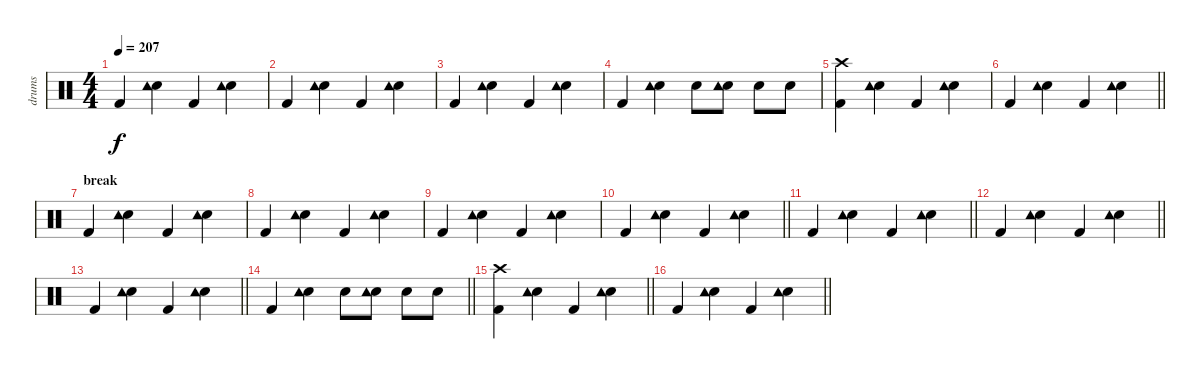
\track ("drums" "drums") {instrument percussion}
\staff {score}
\articulation defaults
\ts (4 4)
\tempo 207
\clef neutral
\ks c "Kick (hit) 2".4{dy f}
("Electric Snare (hit)" "Tambourine (hit)").4 "Kick (hit) 2".4 ("Electric Snare (hit)" "Tambourine (hit)").4 |
"Kick (hit) 2".4 ("Electric Snare (hit)" "Tambourine (hit)").4 "Kick (hit) 2".4 ("Electric Snare (hit)" "Tambourine (hit)").4 |
"Kick (hit) 2".4 ("Electric Snare (hit)" "Tambourine (hit)").4 "Kick (hit) 2".4 ("Electric Snare (hit)" "Tambourine (hit)").4 |
"Kick (hit) 2".4 ("Electric Snare (hit)" "Tambourine (hit)").4 "Electric Snare (hit)".8 ("Electric Snare (hit)" "Tambourine (hit)").8 "Electric Snare (hit)".8 "Electric Snare (hit)".8 |
("Kick (hit) 2" "Crash high (hit)").4 ("Electric Snare (hit)" "Tambourine (hit)").4 "Kick (hit) 2".4 ("Electric Snare (hit)" "Tambourine (hit)").4 |
\barLineRight lightlight "Kick (hit) 2".4
("Electric Snare (hit)" "Tambourine (hit)").4 "Kick (hit) 2".4 ("Electric Snare (hit)" "Tambourine (hit)").4 |
\section ("" "break")
"Kick (hit) 2".4 ("Electric Snare (hit)" "Tambourine (hit)").4 "Kick (hit) 2".4 ("Electric Snare (hit)" "Tambourine (hit)").4 |
"Kick (hit) 2".4 ("Electric Snare (hit)" "Tambourine (hit)").4 "Kick (hit) 2".4 ("Electric Snare (hit)" "Tambourine (hit)").4 |
"Kick (hit) 2".4 ("Electric Snare (hit)" "Tambourine (hit)").4 "Kick (hit) 2".4 ("Electric Snare (hit)" "Tambourine (hit)").4 |
\barLineRight lightlight "Kick (hit) 2".4
("Electric Snare (hit)" "Tambourine (hit)").4 "Kick (hit) 2".4 ("Electric Snare (hit)" "Tambourine (hit)").4 |
\barLineRight lightlight "Kick (hit) 2".4
("Electric Snare (hit)" "Tambourine (hit)").4 "Kick (hit) 2".4 ("Electric Snare (hit)" "Tambourine (hit)").4 |
\barLineRight lightlight "Kick (hit) 2".4
("Electric Snare (hit)" "Tambourine (hit)").4 "Kick (hit) 2".4 ("Electric Snare (hit)" "Tambourine (hit)").4 |
\barLineRight lightlight "Kick (hit) 2".4
("Electric Snare (hit)" "Tambourine (hit)").4 "Kick (hit) 2".4 ("Electric Snare (hit)" "Tambourine (hit)").4 |
\barLineRight lightlight "Kick (hit) 2".4
("Electric Snare (hit)" "Tambourine (hit)").4 "Electric Snare (hit)".8 ("Electric Snare (hit)" "Tambourine (hit)").8 "Electric Snare (hit)".8 "Electric Snare (hit)".8 |
\barLineRight lightlight
("Kick (hit) 2" "Crash high (hit)").4 ("Electric Snare (hit)" "Tambourine (hit)").4 "Kick (hit) 2".4 ("Electric Snare (hit)" "Tambourine (hit)").4 |
\barLineRight lightlight "Kick (hit) 2".4
("Electric Snare (hit)" "Tambourine (hit)").4 "Kick (hit) 2".4 ("Electric Snare (hit)" "Tambourine (hit)").4
